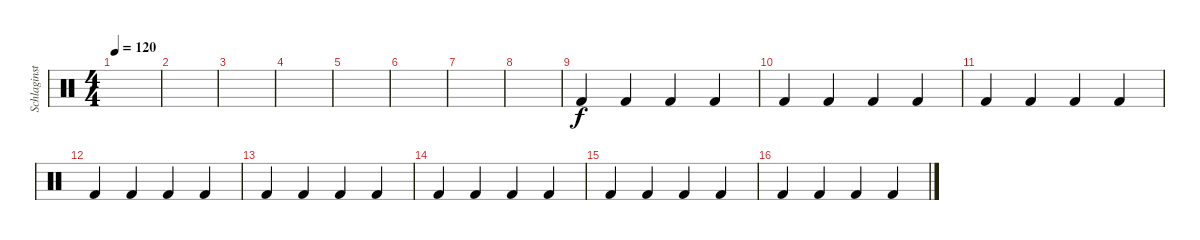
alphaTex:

\track ("Schlaginstrumente - Auswahl" "Schlaginst") {instrument percussion}
\staff {score}
\articulation defaults
\ts (4 4)
\tempo 120
\clef neutral
\ks c
|
|
|
|
|
|
|
|
"Kick (hit) 2".4 "Kick (hit) 2".4 "Kick (hit) 2".4 "Kick (hit) 2".4 |
"Kick (hit) 2".4 "Kick (hit) 2".4 "Kick (hit) 2".4 "Kick (hit) 2".4 |
"Kick (hit) 2".4 "Kick (hit) 2".4 "Kick (hit) 2".4 "Kick (hit) 2".4 |
"Kick (hit) 2".4 "Kick (hit) 2".4 "Kick (hit) 2".4 "Kick (hit) 2".4 |
"Kick (hit) 2".4 "Kick (hit) 2".4 "Kick (hit) 2".4 "Kick (hit) 2".4 |
"Kick (hit) 2".4 "Kick (hit) 2".4 "Kick (hit) 2".4 "Kick (hit) 2".4 |
"Kick (hit) 2".4 "Kick (hit) 2".4 "Kick (hit) 2".4 "Kick (hit) 2".4 |
"Kick (hit) 2".4 "Kick (hit) 2".4 "Kick (hit) 2".4 "Kick (hit) 2".4
